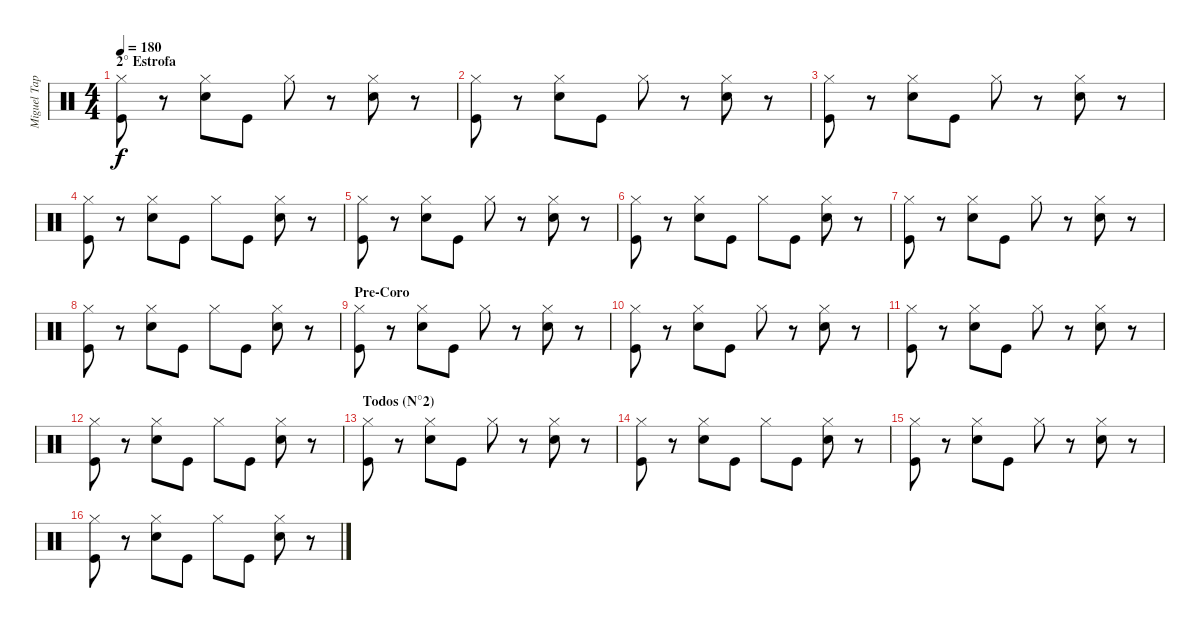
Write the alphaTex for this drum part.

\track ("Miguel Tapia (Batería)" "Miguel Tap") {instrument percussion}
\staff {score}
\articulation defaults
\ts (4 4)
\section ("" "2° Estrofa")
\tempo 180
\clef neutral
\ks c
("Hi-Hat (closed)" "Kick (hit)").8{dy f} r.8 ("Hi-Hat (closed)" "Snare (hit) 2").8 "Kick (hit)".8 "Hi-Hat (closed)".8 r.8 ("Hi-Hat (closed)" "Snare (hit) 2").8 r.8 |
("Hi-Hat (closed)" "Kick (hit)").8 r.8 ("Hi-Hat (closed)" "Snare (hit) 2").8 "Kick (hit)".8 "Hi-Hat (closed)".8 r.8 ("Hi-Hat (closed)" "Snare (hit) 2").8 r.8 |
("Hi-Hat (closed)" "Kick (hit)").8 r.8 ("Hi-Hat (closed)" "Snare (hit) 2").8 "Kick (hit)".8 "Hi-Hat (closed)".8 r.8 ("Hi-Hat (closed)" "Snare (hit) 2").8 r.8 |
("Hi-Hat (closed)" "Kick (hit)").8 r.8 ("Hi-Hat (closed)" "Snare (hit) 2").8 "Kick (hit)".8 "Hi-Hat (closed)".8 "Kick (hit)".8 ("Hi-Hat (closed)" "Snare (hit) 2").8 r.8 |
("Hi-Hat (closed)" "Kick (hit)").8 r.8 ("Hi-Hat (closed)" "Snare (hit) 2").8 "Kick (hit)".8 "Hi-Hat (closed)".8 r.8 ("Hi-Hat (closed)" "Snare (hit) 2").8 r.8 |
("Hi-Hat (closed)" "Kick (hit)").8 r.8 ("Hi-Hat (closed)" "Snare (hit) 2").8 "Kick (hit)".8 "Hi-Hat (closed)".8 "Kick (hit)".8 ("Hi-Hat (closed)" "Snare (hit) 2").8 r.8 |
("Hi-Hat (closed)" "Kick (hit)").8 r.8 ("Hi-Hat (closed)" "Snare (hit) 2").8 "Kick (hit)".8 "Hi-Hat (closed)".8 r.8 ("Hi-Hat (closed)" "Snare (hit) 2").8 r.8 |
("Hi-Hat (closed)" "Kick (hit)").8 r.8 ("Hi-Hat (closed)" "Snare (hit) 2").8 "Kick (hit)".8 "Hi-Hat (closed)".8 "Kick (hit)".8 ("Hi-Hat (closed)" "Snare (hit) 2").8 r.8 |
\section ("" "Pre-Coro ")
("Hi-Hat (closed)" "Kick (hit)").8 r.8 ("Hi-Hat (closed)" "Snare (hit) 2").8 "Kick (hit)".8 "Hi-Hat (closed)".8 r.8 ("Hi-Hat (closed)" "Snare (hit) 2").8 r.8 |
("Hi-Hat (closed)" "Kick (hit)").8 r.8 ("Hi-Hat (closed)" "Snare (hit) 2").8 "Kick (hit)".8 "Hi-Hat (closed)".8 r.8 ("Hi-Hat (closed)" "Snare (hit) 2").8 r.8 |
("Hi-Hat (closed)" "Kick (hit)").8 r.8 ("Hi-Hat (closed)" "Snare (hit) 2").8 "Kick (hit)".8 "Hi-Hat (closed)".8 r.8 ("Hi-Hat (closed)" "Snare (hit) 2").8 r.8 |
("Hi-Hat (closed)" "Kick (hit)").8 r.8 ("Hi-Hat (closed)" "Snare (hit) 2").8 "Kick (hit)".8 "Hi-Hat (closed)".8 "Kick (hit)".8 ("Hi-Hat (closed)" "Snare (hit) 2").8 r.8 |
\section ("" "Todos (N°2)")
("Hi-Hat (closed)" "Kick (hit)").8 r.8 ("Hi-Hat (closed)" "Snare (hit) 2").8 "Kick (hit)".8 "Hi-Hat (closed)".8 r.8 ("Hi-Hat (closed)" "Snare (hit) 2").8 r.8 |
("Hi-Hat (closed)" "Kick (hit)").8 r.8 ("Hi-Hat (closed)" "Snare (hit) 2").8 "Kick (hit)".8 "Hi-Hat (closed)".8 "Kick (hit)".8 ("Hi-Hat (closed)" "Snare (hit) 2").8 r.8 |
("Hi-Hat (closed)" "Kick (hit)").8 r.8 ("Hi-Hat (closed)" "Snare (hit) 2").8 "Kick (hit)".8 "Hi-Hat (closed)".8 r.8 ("Hi-Hat (closed)" "Snare (hit) 2").8 r.8 |
("Hi-Hat (closed)" "Kick (hit)").8 r.8 ("Hi-Hat (closed)" "Snare (hit) 2").8 "Kick (hit)".8 "Hi-Hat (closed)".8 "Kick (hit)".8 ("Hi-Hat (closed)" "Snare (hit) 2").8 r.8
